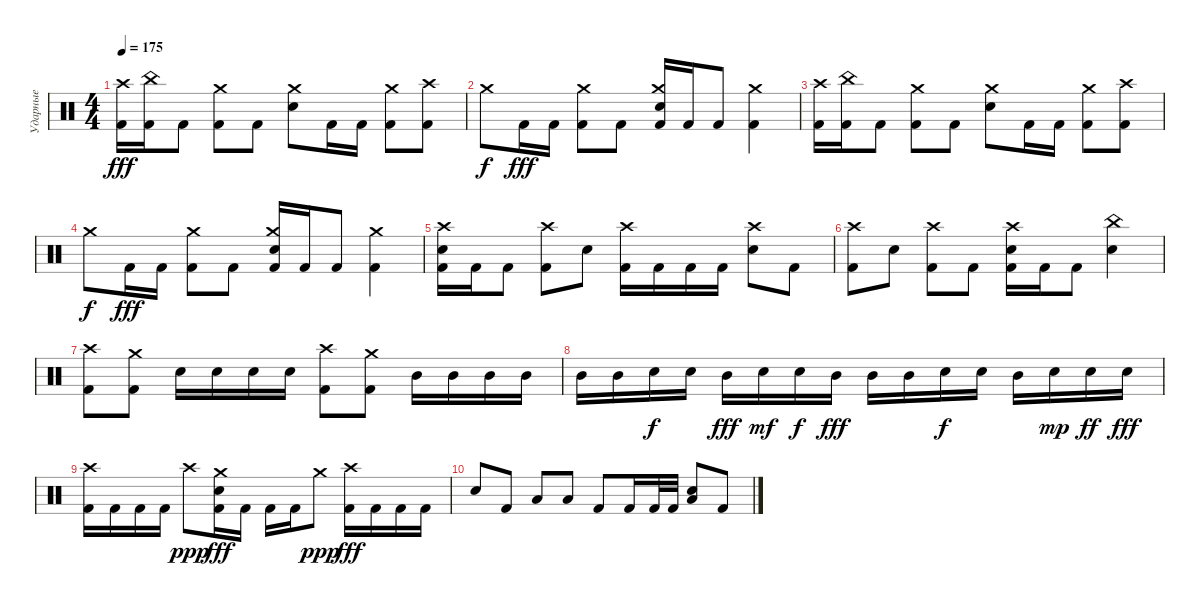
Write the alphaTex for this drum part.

\track ("Ударные" "Ударные") {instrument percussion}
\staff {score}
\articulation defaults
\ts (4 4)
\tempo 175
\clef neutral
\ks c
("Crash high (hit)" "Kick (hit) 2").16{dy fff} ("China (hit)" "Kick (hit) 2").16 "Kick (hit) 2".8 ("Crash medium (hit)" "Kick (hit) 2").8 "Kick (hit) 2".8 ("Crash medium (hit)" "Electric Snare (hit)").8 "Kick (hit) 2".16 "Kick (hit) 2".16 ("Crash medium (hit)" "Kick (hit) 2").8 ("Crash high (hit)" "Kick (hit) 2").8 |
"Crash medium (hit)".8{dy f} "Kick (hit) 2".16{dy fff} "Kick (hit) 2".16 ("Crash medium (hit)" "Kick (hit) 2").8 "Kick (hit) 2".8 ("Crash medium (hit)" "Electric Snare (hit)" "Kick (hit) 2").16 "Kick (hit) 2".16 "Kick (hit) 2".8 ("Crash medium (hit)" "Kick (hit) 2").4 |
("Crash high (hit)" "Kick (hit) 2").16 ("China (hit)" "Kick (hit) 2").16 "Kick (hit) 2".8 ("Crash medium (hit)" "Kick (hit) 2").8 "Kick (hit) 2".8 ("Crash medium (hit)" "Electric Snare (hit)").8 "Kick (hit) 2".16 "Kick (hit) 2".16 ("Crash medium (hit)" "Kick (hit) 2").8 ("Crash high (hit)" "Kick (hit) 2").8 |
"Crash medium (hit)".8{dy f} "Kick (hit) 2".16{dy fff} "Kick (hit) 2".16 ("Crash medium (hit)" "Kick (hit) 2").8 "Kick (hit) 2".8 ("Crash medium (hit)" "Electric Snare (hit)" "Kick (hit) 2").16 "Kick (hit) 2".16 "Kick (hit) 2".8 ("Crash medium (hit)" "Kick (hit) 2").4 |
("Crash high (hit)" "Electric Snare (hit)" "Kick (hit) 2").16 "Kick (hit) 2".16 "Kick (hit) 2".8 ("Crash high (hit)" "Kick (hit) 2").8 "Electric Snare (hit)".8 ("Crash high (hit)" "Kick (hit) 2").16 "Kick (hit) 2".16 "Kick (hit) 2".16 "Kick (hit) 2".16 ("Crash high (hit)" "Electric Snare (hit)").8 "Kick (hit) 2".8 |
("Crash high (hit)" "Kick (hit) 2").8 "Electric Snare (hit)".8 ("Crash high (hit)" "Kick (hit) 2").8 "Kick (hit) 2".8 ("Crash high (hit)" "Electric Snare (hit)" "Kick (hit) 2").16 "Kick (hit) 2".16 "Kick (hit) 2".8 ("China (hit)" "Electric Snare (hit)").4 |
("Crash high (hit)" "Kick (hit) 2").8 ("Crash medium (hit)" "Kick (hit) 2").8 "Electric Snare (hit)".16 "Electric Snare (hit)".16 "Electric Snare (hit)".16 "Electric Snare (hit)".16 ("Crash high (hit)" "Kick (hit) 2").8 ("Crash medium (hit)" "Kick (hit) 2").8 "Mid Tom (hit)".16 "Mid Tom (hit)".16 "Mid Tom (hit)".16 "Mid Tom (hit)".16 |
"Mid Tom (hit)".16 "Mid Tom (hit)".16 "Electric Snare (hit)".16{dy f} "Electric Snare (hit)".16 "Mid Tom (hit)".16{dy fff} "Electric Snare (hit)".16{dy mf} "Electric Snare (hit)".16{dy f} "Mid Tom (hit)".16{dy fff} "Mid Tom (hit)".16 "Mid Tom (hit)".16 "Electric Snare (hit)".16{dy f} "Electric Snare (hit)".16 "Mid Tom (hit)".16 "Electric Snare (hit)".16{dy mp} "Electric Snare (hit)".16{dy ff} "Electric Snare (hit)".16{dy fff} |
("Crash high (hit)" "Kick (hit) 2").16 "Kick (hit) 2".16 "Kick (hit) 2".16 "Kick (hit) 2".16 "Crash high (hit)".8{dy ppp} ("Crash medium (hit)" "Electric Snare (hit)" "Kick (hit) 2").16{dy fff} "Kick (hit) 2".16 "Kick (hit) 2".16 "Kick (hit) 2".16 "Crash medium (hit)".8{dy ppp} ("Crash high (hit)" "Kick (hit) 2").16{dy fff} "Kick (hit) 2".16 "Kick (hit) 2".16 "Kick (hit) 2".16 |
"Electric Snare (hit)".8 "Kick (hit) 2".8 "Low Tom (hit)".8 "Low Floor Tom (hit)".8 "Kick (hit) 2".8 "Kick (hit) 2".16 "Kick (hit) 2".32 "Kick (hit) 2".32 ("Low Floor Tom (hit)" "Electric Snare (hit)").8 "Kick (hit) 2".8
